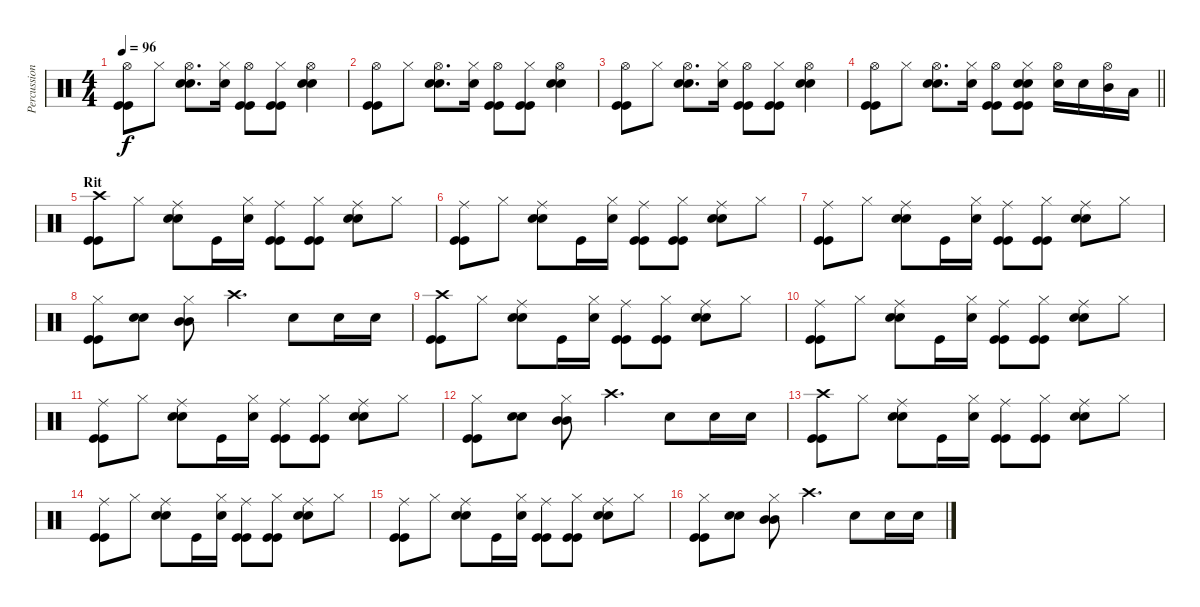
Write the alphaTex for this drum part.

\track ("Percussioni" "Percussion") {instrument percussion}
\staff {score}
\articulation defaults
\ts (4 4)
\tempo 96
\clef neutral
\ks c
("Hi-Hat (open)" "Kick (hit)" "Kick (hit)").8{dy f} "Hi-Hat (closed)".8 ("Hi-Hat (open)" "Snare (hit) 2" "Snare (hit) 2").8{d} ("Hi-Hat (closed)" "Snare (hit) 2").16 ("Hi-Hat (open)" "Kick (hit)" "Kick (hit)").8 ("Hi-Hat (closed)" "Kick (hit)" "Kick (hit)").8 ("Hi-Hat (open)" "Snare (hit) 2" "Snare (hit) 2").4 |
("Hi-Hat (open)" "Kick (hit)" "Kick (hit)").8 "Hi-Hat (closed)".8 ("Hi-Hat (open)" "Snare (hit) 2" "Snare (hit) 2").8{d} ("Hi-Hat (closed)" "Snare (hit) 2").16 ("Hi-Hat (open)" "Kick (hit)" "Kick (hit)").8 ("Hi-Hat (closed)" "Kick (hit)" "Kick (hit)").8 ("Hi-Hat (open)" "Snare (hit) 2" "Snare (hit) 2").4 |
("Hi-Hat (open)" "Kick (hit)" "Kick (hit)").8 "Hi-Hat (closed)".8 ("Hi-Hat (open)" "Snare (hit) 2" "Snare (hit) 2").8{d} ("Hi-Hat (closed)" "Snare (hit) 2").16 ("Hi-Hat (open)" "Kick (hit)" "Kick (hit)").8 ("Hi-Hat (closed)" "Kick (hit)" "Kick (hit)").8 ("Hi-Hat (open)" "Snare (hit) 2" "Snare (hit) 2").4 |
\barLineRight lightlight
("Hi-Hat (open)" "Kick (hit)" "Kick (hit)").8 "Hi-Hat (closed)".8 ("Hi-Hat (open)" "Snare (hit) 2" "Snare (hit) 2").8{d} ("Hi-Hat (closed)" "Snare (hit) 2").16 ("Hi-Hat (open)" "Kick (hit)" "Kick (hit)").8 ("Hi-Hat (closed)" "Snare (hit) 2" "Snare (hit) 2" "Kick (hit)" "Kick (hit)").8 ("Hi-Hat (open)" "Snare (hit) 2").16 "Snare (hit) 2".16 ("Hi-Hat (open)" "Mid Tom (hit)").16 "Low Tom (hit)".16 |
\section ("" "Rit")
("Crash high (hit)" "Kick (hit)" "Kick (hit)").8 "Hi-Hat (closed)".8 ("Ride (middle)" "Snare (hit) 2" "Snare (hit) 2").8 "Kick (hit)".16 ("Hi-Hat (closed)" "Snare (hit) 2").16 ("Ride (middle)" "Kick (hit)" "Kick (hit)").8 ("Hi-Hat (closed)" "Kick (hit)" "Kick (hit)").8 ("Ride (middle)" "Snare (hit) 2" "Snare (hit) 2").8 "Hi-Hat (closed)".8 |
("Ride (middle)" "Kick (hit)" "Kick (hit)").8 "Hi-Hat (closed)".8 ("Ride (middle)" "Snare (hit) 2" "Snare (hit) 2").8 "Kick (hit)".16 ("Hi-Hat (closed)" "Snare (hit) 2").16 ("Ride (middle)" "Kick (hit)" "Kick (hit)").8 ("Hi-Hat (closed)" "Kick (hit)" "Kick (hit)").8 ("Ride (middle)" "Snare (hit) 2" "Snare (hit) 2").8 "Hi-Hat (closed)".8 |
("Ride (middle)" "Kick (hit)" "Kick (hit)").8 "Hi-Hat (closed)".8 ("Ride (middle)" "Snare (hit) 2" "Snare (hit) 2").8 "Kick (hit)".16 ("Hi-Hat (closed)" "Snare (hit) 2").16 ("Ride (middle)" "Kick (hit)" "Kick (hit)").8 ("Hi-Hat (closed)" "Kick (hit)" "Kick (hit)").8 ("Ride (middle)" "Snare (hit) 2" "Snare (hit) 2").8 "Hi-Hat (closed)".8 |
("Hi-Hat (closed)" "Kick (hit)" "Kick (hit)").8 ("Snare (hit) 2" "Snare (hit) 2").8 ("Hi-Hat (closed)" "Mid Tom (hit)" "Mid Tom (hit)").8 "Crash high (hit)".4{d} "Snare (hit) 2".8 "Snare (hit) 2".16 "Snare (hit) 2".16 |
("Crash high (hit)" "Kick (hit)" "Kick (hit)").8 "Hi-Hat (closed)".8 ("Ride (middle)" "Snare (hit) 2" "Snare (hit) 2").8 "Kick (hit)".16 ("Hi-Hat (closed)" "Snare (hit) 2").16 ("Ride (middle)" "Kick (hit)" "Kick (hit)").8 ("Hi-Hat (closed)" "Kick (hit)" "Kick (hit)").8 ("Ride (middle)" "Snare (hit) 2" "Snare (hit) 2").8 "Hi-Hat (closed)".8 |
("Ride (middle)" "Kick (hit)" "Kick (hit)").8 "Hi-Hat (closed)".8 ("Ride (middle)" "Snare (hit) 2" "Snare (hit) 2").8 "Kick (hit)".16 ("Hi-Hat (closed)" "Snare (hit) 2").16 ("Ride (middle)" "Kick (hit)" "Kick (hit)").8 ("Hi-Hat (closed)" "Kick (hit)" "Kick (hit)").8 ("Ride (middle)" "Snare (hit) 2" "Snare (hit) 2").8 "Hi-Hat (closed)".8 |
("Ride (middle)" "Kick (hit)" "Kick (hit)").8 "Hi-Hat (closed)".8 ("Ride (middle)" "Snare (hit) 2" "Snare (hit) 2").8 "Kick (hit)".16 ("Hi-Hat (closed)" "Snare (hit) 2").16 ("Ride (middle)" "Kick (hit)" "Kick (hit)").8 ("Hi-Hat (closed)" "Kick (hit)" "Kick (hit)").8 ("Ride (middle)" "Snare (hit) 2" "Snare (hit) 2").8 "Hi-Hat (closed)".8 |
("Hi-Hat (closed)" "Kick (hit)" "Kick (hit)").8 ("Snare (hit) 2" "Snare (hit) 2").8 ("Hi-Hat (closed)" "Mid Tom (hit)" "Mid Tom (hit)").8 "Crash high (hit)".4{d} "Snare (hit) 2".8 "Snare (hit) 2".16 "Snare (hit) 2".16 |
("Crash high (hit)" "Kick (hit)" "Kick (hit)").8 "Hi-Hat (closed)".8 ("Ride (middle)" "Snare (hit) 2" "Snare (hit) 2").8 "Kick (hit)".16 ("Hi-Hat (closed)" "Snare (hit) 2").16 ("Ride (middle)" "Kick (hit)" "Kick (hit)").8 ("Hi-Hat (closed)" "Kick (hit)" "Kick (hit)").8 ("Ride (middle)" "Snare (hit) 2" "Snare (hit) 2").8 "Hi-Hat (closed)".8 |
("Ride (middle)" "Kick (hit)" "Kick (hit)").8 "Hi-Hat (closed)".8 ("Ride (middle)" "Snare (hit) 2" "Snare (hit) 2").8 "Kick (hit)".16 ("Hi-Hat (closed)" "Snare (hit) 2").16 ("Ride (middle)" "Kick (hit)" "Kick (hit)").8 ("Hi-Hat (closed)" "Kick (hit)" "Kick (hit)").8 ("Ride (middle)" "Snare (hit) 2" "Snare (hit) 2").8 "Hi-Hat (closed)".8 |
("Ride (middle)" "Kick (hit)" "Kick (hit)").8 "Hi-Hat (closed)".8 ("Ride (middle)" "Snare (hit) 2" "Snare (hit) 2").8 "Kick (hit)".16 ("Hi-Hat (closed)" "Snare (hit) 2").16 ("Ride (middle)" "Kick (hit)" "Kick (hit)").8 ("Hi-Hat (closed)" "Kick (hit)" "Kick (hit)").8 ("Ride (middle)" "Snare (hit) 2" "Snare (hit) 2").8 "Hi-Hat (closed)".8 |
("Hi-Hat (closed)" "Kick (hit)" "Kick (hit)").8 ("Snare (hit) 2" "Snare (hit) 2").8 ("Hi-Hat (closed)" "Mid Tom (hit)" "Mid Tom (hit)").8 "Crash high (hit)".4{d} "Snare (hit) 2".8 "Snare (hit) 2".16 "Snare (hit) 2".16
